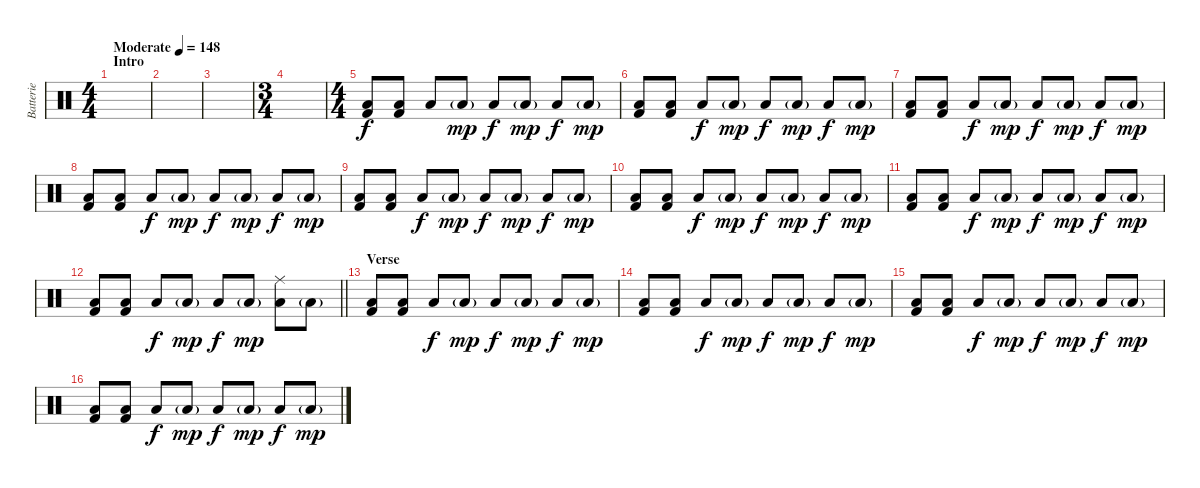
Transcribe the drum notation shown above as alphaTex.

\track ("Batterie" "Batterie") {instrument percussion}
\staff {score}
\articulation defaults
\ts (4 4)
\section ("" "Intro")
\tempo (148 "Moderate")
\clef neutral
\ks c
|
|
|
\ts (3 4)
|
\ts (4 4)
("Low Floor Tom (hit)" "Kick (hit) 2").8 ("Low Floor Tom (hit)" "Kick (hit) 2").8 "Low Floor Tom (hit)".8{dy f} "Low Floor Tom (hit)"{g}.8{dy mp} "Low Floor Tom (hit)".8{dy f} "Low Floor Tom (hit)"{g}.8{dy mp} "Low Floor Tom (hit)".8{dy f} "Low Floor Tom (hit)"{g}.8{dy mp} |
("Low Floor Tom (hit)" "Kick (hit) 2").8 ("Low Floor Tom (hit)" "Kick (hit) 2").8 "Low Floor Tom (hit)".8{dy f} "Low Floor Tom (hit)"{g}.8{dy mp} "Low Floor Tom (hit)".8{dy f} "Low Floor Tom (hit)"{g}.8{dy mp} "Low Floor Tom (hit)".8{dy f} "Low Floor Tom (hit)"{g}.8{dy mp} |
("Low Floor Tom (hit)" "Kick (hit) 2").8 ("Low Floor Tom (hit)" "Kick (hit) 2").8 "Low Floor Tom (hit)".8{dy f} "Low Floor Tom (hit)"{g}.8{dy mp} "Low Floor Tom (hit)".8{dy f} "Low Floor Tom (hit)"{g}.8{dy mp} "Low Floor Tom (hit)".8{dy f} "Low Floor Tom (hit)"{g}.8{dy mp} |
("Low Floor Tom (hit)" "Kick (hit) 2").8 ("Low Floor Tom (hit)" "Kick (hit) 2").8 "Low Floor Tom (hit)".8{dy f} "Low Floor Tom (hit)"{g}.8{dy mp} "Low Floor Tom (hit)".8{dy f} "Low Floor Tom (hit)"{g}.8{dy mp} "Low Floor Tom (hit)".8{dy f} "Low Floor Tom (hit)"{g}.8{dy mp} |
("Low Floor Tom (hit)" "Kick (hit) 2").8 ("Low Floor Tom (hit)" "Kick (hit) 2").8 "Low Floor Tom (hit)".8{dy f} "Low Floor Tom (hit)"{g}.8{dy mp} "Low Floor Tom (hit)".8{dy f} "Low Floor Tom (hit)"{g}.8{dy mp} "Low Floor Tom (hit)".8{dy f} "Low Floor Tom (hit)"{g}.8{dy mp} |
("Low Floor Tom (hit)" "Kick (hit) 2").8 ("Low Floor Tom (hit)" "Kick (hit) 2").8 "Low Floor Tom (hit)".8{dy f} "Low Floor Tom (hit)"{g}.8{dy mp} "Low Floor Tom (hit)".8{dy f} "Low Floor Tom (hit)"{g}.8{dy mp} "Low Floor Tom (hit)".8{dy f} "Low Floor Tom (hit)"{g}.8{dy mp} |
("Low Floor Tom (hit)" "Kick (hit) 2").8 ("Low Floor Tom (hit)" "Kick (hit) 2").8 "Low Floor Tom (hit)".8{dy f} "Low Floor Tom (hit)"{g}.8{dy mp} "Low Floor Tom (hit)".8{dy f} "Low Floor Tom (hit)"{g}.8{dy mp} "Low Floor Tom (hit)".8{dy f} "Low Floor Tom (hit)"{g}.8{dy mp} |
\barLineRight lightlight
("Low Floor Tom (hit)" "Kick (hit) 2").8 ("Low Floor Tom (hit)" "Kick (hit) 2").8 "Low Floor Tom (hit)".8{dy f} "Low Floor Tom (hit)"{g}.8{dy mp} "Low Floor Tom (hit)".8{dy f} "Low Floor Tom (hit)"{g}.8{dy mp} ("Ride (middle)" "Low Floor Tom (hit)").8 "Low Floor Tom (hit)"{g}.8 |
\section ("" "Verse")
("Low Floor Tom (hit)" "Kick (hit) 2").8 ("Low Floor Tom (hit)" "Kick (hit) 2").8 "Low Floor Tom (hit)".8{dy f} "Low Floor Tom (hit)"{g}.8{dy mp} "Low Floor Tom (hit)".8{dy f} "Low Floor Tom (hit)"{g}.8{dy mp} "Low Floor Tom (hit)".8{dy f} "Low Floor Tom (hit)"{g}.8{dy mp} |
("Low Floor Tom (hit)" "Kick (hit) 2").8 ("Low Floor Tom (hit)" "Kick (hit) 2").8 "Low Floor Tom (hit)".8{dy f} "Low Floor Tom (hit)"{g}.8{dy mp} "Low Floor Tom (hit)".8{dy f} "Low Floor Tom (hit)"{g}.8{dy mp} "Low Floor Tom (hit)".8{dy f} "Low Floor Tom (hit)"{g}.8{dy mp} |
("Low Floor Tom (hit)" "Kick (hit) 2").8 ("Low Floor Tom (hit)" "Kick (hit) 2").8 "Low Floor Tom (hit)".8{dy f} "Low Floor Tom (hit)"{g}.8{dy mp} "Low Floor Tom (hit)".8{dy f} "Low Floor Tom (hit)"{g}.8{dy mp} "Low Floor Tom (hit)".8{dy f} "Low Floor Tom (hit)"{g}.8{dy mp} |
("Low Floor Tom (hit)" "Kick (hit) 2").8 ("Low Floor Tom (hit)" "Kick (hit) 2").8 "Low Floor Tom (hit)".8{dy f} "Low Floor Tom (hit)"{g}.8{dy mp} "Low Floor Tom (hit)".8{dy f} "Low Floor Tom (hit)"{g}.8{dy mp} "Low Floor Tom (hit)".8{dy f} "Low Floor Tom (hit)"{g}.8{dy mp}
